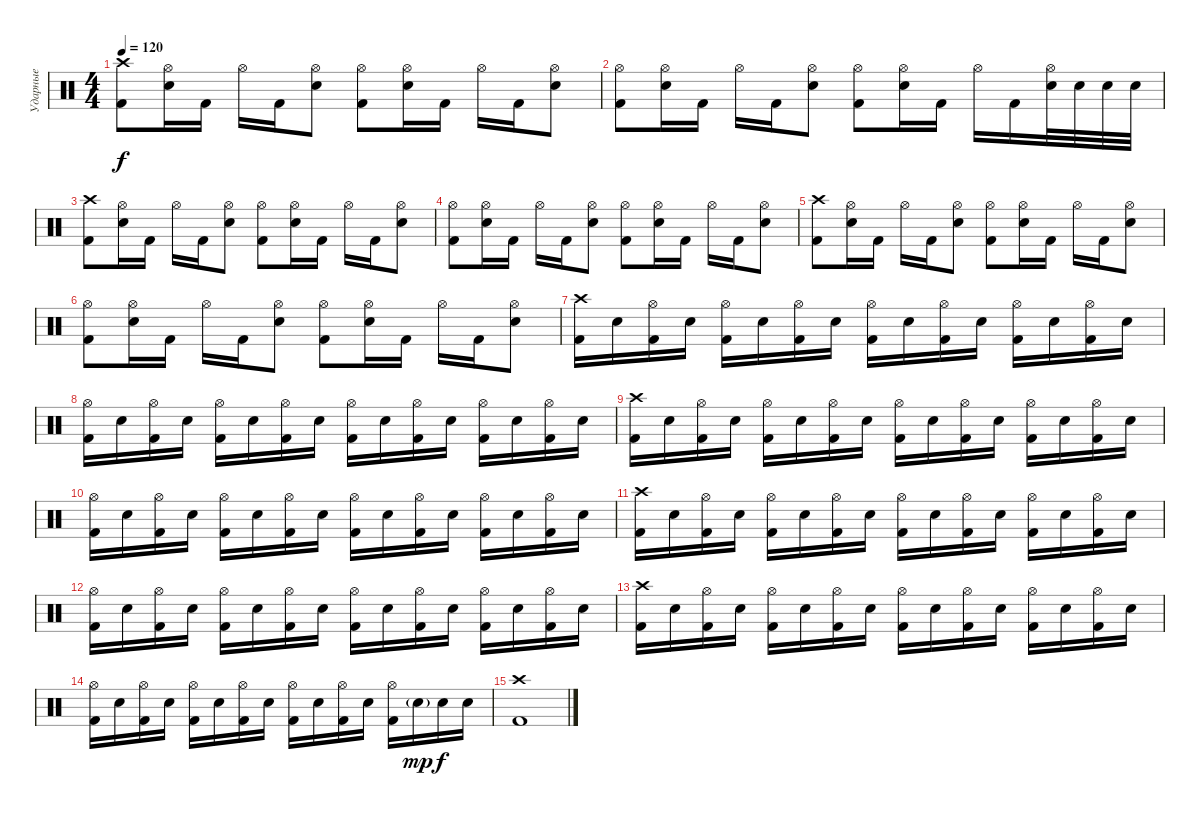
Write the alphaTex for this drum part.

\track ("Ударные" "Ударные") {instrument percussion}
\staff {score}
\articulation defaults
\ts (4 4)
\tempo 120
\clef neutral
\ks c
("Kick (hit) 2" "Crash high (hit)").8{dy f} ("Electric Snare (hit)" "Hi-Hat (open)").16 "Kick (hit) 2".16 "Hi-Hat (open)".16 "Kick (hit) 2".16 ("Electric Snare (hit)" "Hi-Hat (open)").8 ("Kick (hit) 2" "Hi-Hat (open)").8 ("Electric Snare (hit)" "Hi-Hat (open)").16 "Kick (hit) 2".16 "Hi-Hat (open)".16 "Kick (hit) 2".16 ("Electric Snare (hit)" "Hi-Hat (open)").8 |
("Kick (hit) 2" "Hi-Hat (open)").8 ("Electric Snare (hit)" "Hi-Hat (open)").16 "Kick (hit) 2".16 "Hi-Hat (open)".16 "Kick (hit) 2".16 ("Electric Snare (hit)" "Hi-Hat (open)").8 ("Kick (hit) 2" "Hi-Hat (open)").8 ("Electric Snare (hit)" "Hi-Hat (open)").16 "Kick (hit) 2".16 "Hi-Hat (open)".16 "Kick (hit) 2".16 ("Electric Snare (hit)" "Hi-Hat (open)").32 "Electric Snare (hit)".32 "Electric Snare (hit)".32 "Electric Snare (hit)".32 |
("Kick (hit) 2" "Crash high (hit)").8 ("Electric Snare (hit)" "Hi-Hat (open)").16 "Kick (hit) 2".16 "Hi-Hat (open)".16 "Kick (hit) 2".16 ("Electric Snare (hit)" "Hi-Hat (open)").8 ("Kick (hit) 2" "Hi-Hat (open)").8 ("Electric Snare (hit)" "Hi-Hat (open)").16 "Kick (hit) 2".16 "Hi-Hat (open)".16 "Kick (hit) 2".16 ("Electric Snare (hit)" "Hi-Hat (open)").8 |
("Kick (hit) 2" "Hi-Hat (open)").8 ("Electric Snare (hit)" "Hi-Hat (open)").16 "Kick (hit) 2".16 "Hi-Hat (open)".16 "Kick (hit) 2".16 ("Electric Snare (hit)" "Hi-Hat (open)").8 ("Kick (hit) 2" "Hi-Hat (open)").8 ("Electric Snare (hit)" "Hi-Hat (open)").16 "Kick (hit) 2".16 "Hi-Hat (open)".16 "Kick (hit) 2".16 ("Electric Snare (hit)" "Hi-Hat (open)").8 |
("Kick (hit) 2" "Crash high (hit)").8 ("Electric Snare (hit)" "Hi-Hat (open)").16 "Kick (hit) 2".16 "Hi-Hat (open)".16 "Kick (hit) 2".16 ("Electric Snare (hit)" "Hi-Hat (open)").8 ("Kick (hit) 2" "Hi-Hat (open)").8 ("Electric Snare (hit)" "Hi-Hat (open)").16 "Kick (hit) 2".16 "Hi-Hat (open)".16 "Kick (hit) 2".16 ("Electric Snare (hit)" "Hi-Hat (open)").8 |
("Kick (hit) 2" "Hi-Hat (open)").8 ("Electric Snare (hit)" "Hi-Hat (open)").16 "Kick (hit) 2".16 "Hi-Hat (open)".16 "Kick (hit) 2".16 ("Electric Snare (hit)" "Hi-Hat (open)").8 ("Kick (hit) 2" "Hi-Hat (open)").8 ("Electric Snare (hit)" "Hi-Hat (open)").16 "Kick (hit) 2".16 "Hi-Hat (open)".16 "Kick (hit) 2".16 ("Electric Snare (hit)" "Hi-Hat (open)").8 |
("Kick (hit) 2" "Crash high (hit)").16 "Electric Snare (hit)".16 ("Kick (hit) 2" "Hi-Hat (open)").16 "Electric Snare (hit)".16 ("Kick (hit) 2" "Hi-Hat (open)").16 "Electric Snare (hit)".16 ("Kick (hit) 2" "Hi-Hat (open)").16 "Electric Snare (hit)".16 ("Kick (hit) 2" "Hi-Hat (open)").16 "Electric Snare (hit)".16 ("Kick (hit) 2" "Hi-Hat (open)").16 "Electric Snare (hit)".16 ("Kick (hit) 2" "Hi-Hat (open)").16 "Electric Snare (hit)".16 ("Kick (hit) 2" "Hi-Hat (open)").16 "Electric Snare (hit)".16 |
("Kick (hit) 2" "Hi-Hat (open)").16 "Electric Snare (hit)".16 ("Kick (hit) 2" "Hi-Hat (open)").16 "Electric Snare (hit)".16 ("Kick (hit) 2" "Hi-Hat (open)").16 "Electric Snare (hit)".16 ("Kick (hit) 2" "Hi-Hat (open)").16 "Electric Snare (hit)".16 ("Kick (hit) 2" "Hi-Hat (open)").16 "Electric Snare (hit)".16 ("Kick (hit) 2" "Hi-Hat (open)").16 "Electric Snare (hit)".16 ("Kick (hit) 2" "Hi-Hat (open)").16 "Electric Snare (hit)".16 ("Kick (hit) 2" "Hi-Hat (open)").16 "Electric Snare (hit)".16 |
("Kick (hit) 2" "Crash high (hit)").16 "Electric Snare (hit)".16 ("Kick (hit) 2" "Hi-Hat (open)").16 "Electric Snare (hit)".16 ("Kick (hit) 2" "Hi-Hat (open)").16 "Electric Snare (hit)".16 ("Kick (hit) 2" "Hi-Hat (open)").16 "Electric Snare (hit)".16 ("Kick (hit) 2" "Hi-Hat (open)").16 "Electric Snare (hit)".16 ("Kick (hit) 2" "Hi-Hat (open)").16 "Electric Snare (hit)".16 ("Kick (hit) 2" "Hi-Hat (open)").16 "Electric Snare (hit)".16 ("Kick (hit) 2" "Hi-Hat (open)").16 "Electric Snare (hit)".16 |
("Kick (hit) 2" "Hi-Hat (open)").16 "Electric Snare (hit)".16 ("Kick (hit) 2" "Hi-Hat (open)").16 "Electric Snare (hit)".16 ("Kick (hit) 2" "Hi-Hat (open)").16 "Electric Snare (hit)".16 ("Kick (hit) 2" "Hi-Hat (open)").16 "Electric Snare (hit)".16 ("Kick (hit) 2" "Hi-Hat (open)").16 "Electric Snare (hit)".16 ("Kick (hit) 2" "Hi-Hat (open)").16 "Electric Snare (hit)".16 ("Kick (hit) 2" "Hi-Hat (open)").16 "Electric Snare (hit)".16 ("Kick (hit) 2" "Hi-Hat (open)").16 "Electric Snare (hit)".16 |
("Kick (hit) 2" "Crash high (hit)").16 "Electric Snare (hit)".16 ("Kick (hit) 2" "Hi-Hat (open)").16 "Electric Snare (hit)".16 ("Kick (hit) 2" "Hi-Hat (open)").16 "Electric Snare (hit)".16 ("Kick (hit) 2" "Hi-Hat (open)").16 "Electric Snare (hit)".16 ("Kick (hit) 2" "Hi-Hat (open)").16 "Electric Snare (hit)".16 ("Kick (hit) 2" "Hi-Hat (open)").16 "Electric Snare (hit)".16 ("Kick (hit) 2" "Hi-Hat (open)").16 "Electric Snare (hit)".16 ("Kick (hit) 2" "Hi-Hat (open)").16 "Electric Snare (hit)".16 |
("Kick (hit) 2" "Hi-Hat (open)").16 "Electric Snare (hit)".16 ("Kick (hit) 2" "Hi-Hat (open)").16 "Electric Snare (hit)".16 ("Kick (hit) 2" "Hi-Hat (open)").16 "Electric Snare (hit)".16 ("Kick (hit) 2" "Hi-Hat (open)").16 "Electric Snare (hit)".16 ("Kick (hit) 2" "Hi-Hat (open)").16 "Electric Snare (hit)".16 ("Kick (hit) 2" "Hi-Hat (open)").16 "Electric Snare (hit)".16 ("Kick (hit) 2" "Hi-Hat (open)").16 "Electric Snare (hit)".16 ("Kick (hit) 2" "Hi-Hat (open)").16 "Electric Snare (hit)".16 |
("Kick (hit) 2" "Crash high (hit)").16 "Electric Snare (hit)".16 ("Kick (hit) 2" "Hi-Hat (open)").16 "Electric Snare (hit)".16 ("Kick (hit) 2" "Hi-Hat (open)").16 "Electric Snare (hit)".16 ("Kick (hit) 2" "Hi-Hat (open)").16 "Electric Snare (hit)".16 ("Kick (hit) 2" "Hi-Hat (open)").16 "Electric Snare (hit)".16 ("Kick (hit) 2" "Hi-Hat (open)").16 "Electric Snare (hit)".16 ("Kick (hit) 2" "Hi-Hat (open)").16 "Electric Snare (hit)".16 ("Kick (hit) 2" "Hi-Hat (open)").16 "Electric Snare (hit)".16 |
("Kick (hit) 2" "Hi-Hat (open)").16 "Electric Snare (hit)".16 ("Kick (hit) 2" "Hi-Hat (open)").16 "Electric Snare (hit)".16 ("Kick (hit) 2" "Hi-Hat (open)").16 "Electric Snare (hit)".16 ("Kick (hit) 2" "Hi-Hat (open)").16 "Electric Snare (hit)".16 ("Kick (hit) 2" "Hi-Hat (open)").16 "Electric Snare (hit)".16 ("Kick (hit) 2" "Hi-Hat (open)").16 "Electric Snare (hit)".16 ("Kick (hit) 2" "Hi-Hat (open)").16 "Electric Snare (hit)"{g}.16{dy mp} "Electric Snare (hit)".16{dy f} "Electric Snare (hit)".16 |
("Kick (hit) 2" "Crash high (hit)").1
